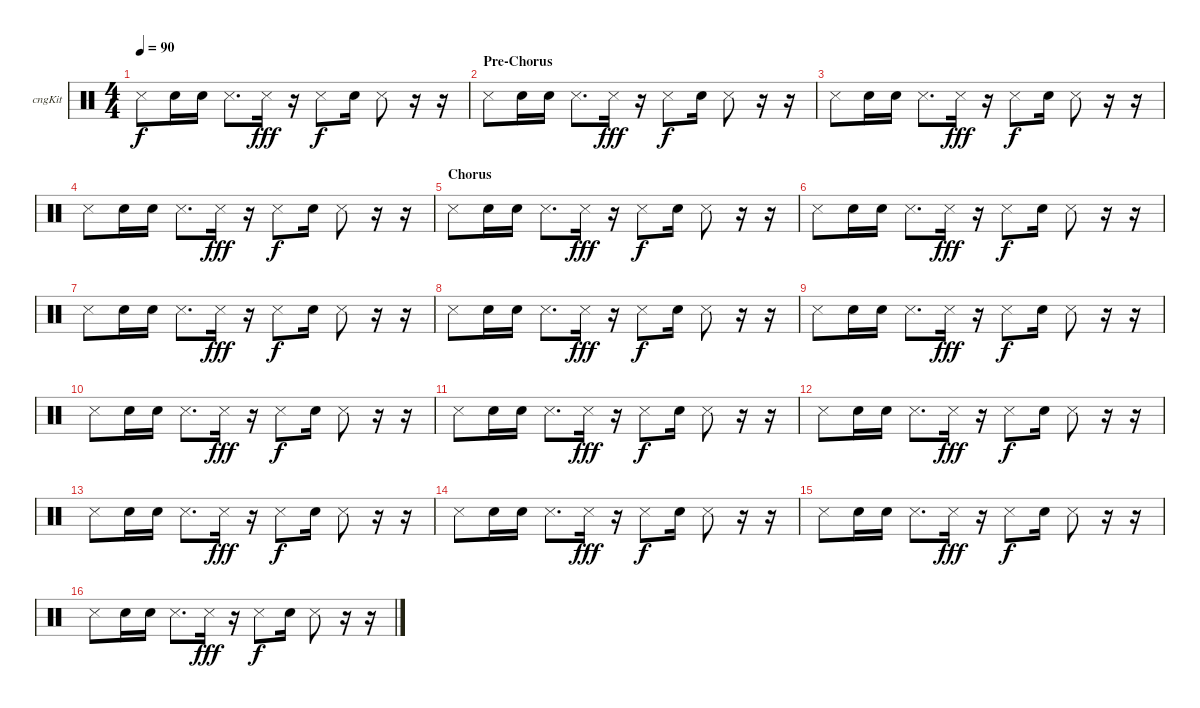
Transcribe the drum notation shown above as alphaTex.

\bracketExtendMode groupsimilarinstruments
\firstSystemTrackNameOrientation horizontal
\otherSystemsTrackNameOrientation horizontal
\track ("Congas" "cngKit") {multiBarRest instrument percussion}
\staff {score}
\articulation defaults
\ts (4 4)
\tempo 90
\clef neutral
\ks c "Snare (side stick) 3".8{dy f} "Snare (hit) 2".16 "Snare (hit) 2".16 "Snare (side stick) 3".8{d} "Snare (side stick) 3".16{dy fff}
r.16 "Snare (side stick) 3".8{dy f} "Snare (hit) 2".16 "Snare (side stick) 3".8 r.16 r.16 |
\section ("" "Pre-Chorus")
"Snare (side stick) 3".8 "Snare (hit) 2".16 "Snare (hit) 2".16 "Snare (side stick) 3".8{d} "Snare (side stick) 3".16{dy fff} r.16 "Snare (side stick) 3".8{dy f} "Snare (hit) 2".16 "Snare (side stick) 3".8 r.16 r.16 |
"Snare (side stick) 3".8 "Snare (hit) 2".16 "Snare (hit) 2".16 "Snare (side stick) 3".8{d} "Snare (side stick) 3".16{dy fff} r.16 "Snare (side stick) 3".8{dy f} "Snare (hit) 2".16 "Snare (side stick) 3".8 r.16 r.16 |
"Snare (side stick) 3".8 "Snare (hit) 2".16 "Snare (hit) 2".16 "Snare (side stick) 3".8{d} "Snare (side stick) 3".16{dy fff} r.16 "Snare (side stick) 3".8{dy f} "Snare (hit) 2".16 "Snare (side stick) 3".8 r.16 r.16 |
\section ("" "Chorus")
"Snare (side stick) 3".8 "Snare (hit) 2".16 "Snare (hit) 2".16 "Snare (side stick) 3".8{d} "Snare (side stick) 3".16{dy fff} r.16 "Snare (side stick) 3".8{dy f} "Snare (hit) 2".16 "Snare (side stick) 3".8 r.16 r.16 |
"Snare (side stick) 3".8 "Snare (hit) 2".16 "Snare (hit) 2".16 "Snare (side stick) 3".8{d} "Snare (side stick) 3".16{dy fff} r.16 "Snare (side stick) 3".8{dy f} "Snare (hit) 2".16 "Snare (side stick) 3".8 r.16 r.16 |
"Snare (side stick) 3".8 "Snare (hit) 2".16 "Snare (hit) 2".16 "Snare (side stick) 3".8{d} "Snare (side stick) 3".16{dy fff} r.16 "Snare (side stick) 3".8{dy f} "Snare (hit) 2".16 "Snare (side stick) 3".8 r.16 r.16 |
"Snare (side stick) 3".8 "Snare (hit) 2".16 "Snare (hit) 2".16 "Snare (side stick) 3".8{d} "Snare (side stick) 3".16{dy fff} r.16 "Snare (side stick) 3".8{dy f} "Snare (hit) 2".16 "Snare (side stick) 3".8 r.16 r.16 |
"Snare (side stick) 3".8 "Snare (hit) 2".16 "Snare (hit) 2".16 "Snare (side stick) 3".8{d} "Snare (side stick) 3".16{dy fff} r.16 "Snare (side stick) 3".8{dy f} "Snare (hit) 2".16 "Snare (side stick) 3".8 r.16 r.16 |
"Snare (side stick) 3".8 "Snare (hit) 2".16 "Snare (hit) 2".16 "Snare (side stick) 3".8{d} "Snare (side stick) 3".16{dy fff} r.16 "Snare (side stick) 3".8{dy f} "Snare (hit) 2".16 "Snare (side stick) 3".8 r.16 r.16 |
"Snare (side stick) 3".8 "Snare (hit) 2".16 "Snare (hit) 2".16 "Snare (side stick) 3".8{d} "Snare (side stick) 3".16{dy fff} r.16 "Snare (side stick) 3".8{dy f} "Snare (hit) 2".16 "Snare (side stick) 3".8 r.16 r.16 |
"Snare (side stick) 3".8 "Snare (hit) 2".16 "Snare (hit) 2".16 "Snare (side stick) 3".8{d} "Snare (side stick) 3".16{dy fff} r.16 "Snare (side stick) 3".8{dy f} "Snare (hit) 2".16 "Snare (side stick) 3".8 r.16 r.16 |
"Snare (side stick) 3".8 "Snare (hit) 2".16 "Snare (hit) 2".16 "Snare (side stick) 3".8{d} "Snare (side stick) 3".16{dy fff} r.16 "Snare (side stick) 3".8{dy f} "Snare (hit) 2".16 "Snare (side stick) 3".8 r.16 r.16 |
"Snare (side stick) 3".8 "Snare (hit) 2".16 "Snare (hit) 2".16 "Snare (side stick) 3".8{d} "Snare (side stick) 3".16{dy fff} r.16 "Snare (side stick) 3".8{dy f} "Snare (hit) 2".16 "Snare (side stick) 3".8 r.16 r.16 |
"Snare (side stick) 3".8 "Snare (hit) 2".16 "Snare (hit) 2".16 "Snare (side stick) 3".8{d} "Snare (side stick) 3".16{dy fff} r.16 "Snare (side stick) 3".8{dy f} "Snare (hit) 2".16 "Snare (side stick) 3".8 r.16 r.16 |
"Snare (side stick) 3".8 "Snare (hit) 2".16 "Snare (hit) 2".16 "Snare (side stick) 3".8{d} "Snare (side stick) 3".16{dy fff} r.16 "Snare (side stick) 3".8{dy f} "Snare (hit) 2".16 "Snare (side stick) 3".8 r.16 r.16
